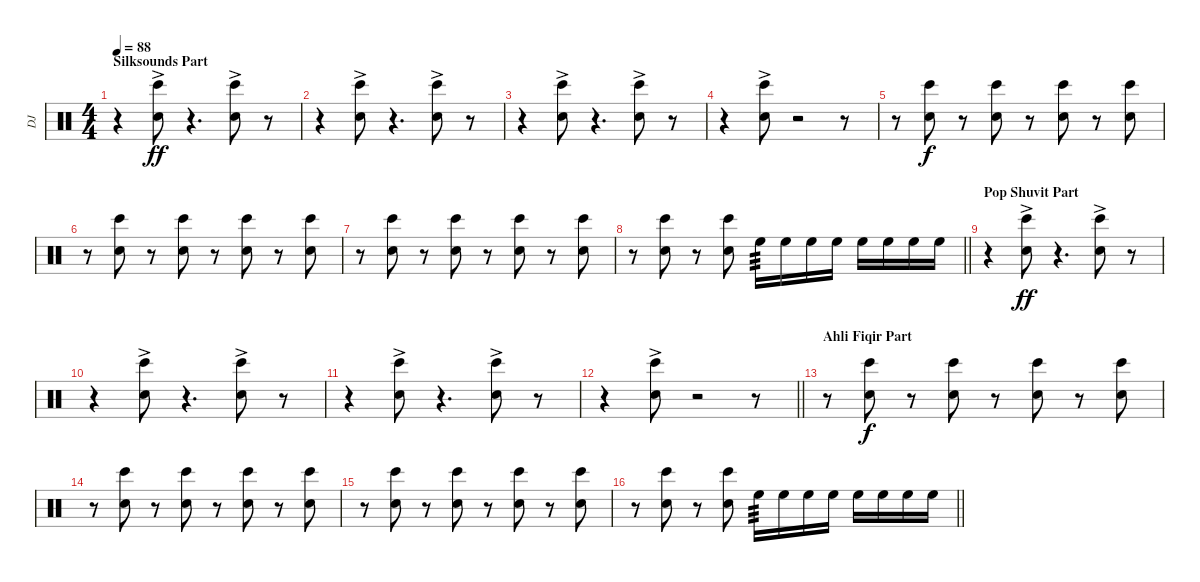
\track ("DJ" "DJ") {instrument percussion}
\staff {score}
\articulation defaults
\ts (4 4)
\section ("" "Silksounds Part")
\tempo 88
\clef neutral
\ks c
r.4{dy f} ("Bongo High (hit)"{ac} "Hand Clap (hit)"{ac}).8{dy ff} r.4{d} ("Bongo High (hit)"{ac} "Hand Clap (hit)"{ac}).8 r.8 |
r.4 ("Bongo High (hit)"{ac} "Hand Clap (hit)"{ac}).8 r.4{d} ("Bongo High (hit)"{ac} "Hand Clap (hit)"{ac}).8 r.8 |
r.4 ("Bongo High (hit)"{ac} "Hand Clap (hit)"{ac}).8 r.4{d} ("Bongo High (hit)"{ac} "Hand Clap (hit)"{ac}).8 r.8 |
r.4 ("Bongo High (hit)"{ac} "Hand Clap (hit)"{ac}).8 r.2 r.8 |
r.8 ("Bongo High (hit)" "Hand Clap (hit)").8{dy f} r.8 ("Bongo High (hit)" "Hand Clap (hit)").8 r.8 ("Bongo High (hit)" "Hand Clap (hit)").8 r.8 ("Bongo High (hit)" "Hand Clap (hit)").8 |
r.8 ("Bongo High (hit)" "Hand Clap (hit)").8 r.8 ("Bongo High (hit)" "Hand Clap (hit)").8 r.8 ("Bongo High (hit)" "Hand Clap (hit)").8 r.8 ("Bongo High (hit)" "Hand Clap (hit)").8 |
r.8 ("Bongo High (hit)" "Hand Clap (hit)").8 r.8 ("Bongo High (hit)" "Hand Clap (hit)").8 r.8 ("Bongo High (hit)" "Hand Clap (hit)").8 r.8 ("Bongo High (hit)" "Hand Clap (hit)").8 |
\barLineRight lightlight
r.8 ("Bongo High (hit)" "Hand Clap (hit)").8 r.8 ("Bongo High (hit)" "Hand Clap (hit)").8 "High Floor Tom (hit)".16{tp 3} "High Floor Tom (hit)".16 "High Floor Tom (hit)".16 "High Floor Tom (hit)".16 "High Floor Tom (hit)".16 "High Floor Tom (hit)".16 "High Floor Tom (hit)".16 "High Floor Tom (hit)".16 |
\section ("" "Pop Shuvit Part")
r.4 ("Bongo High (hit)"{ac} "Hand Clap (hit)"{ac}).8{dy ff} r.4{d} ("Bongo High (hit)"{ac} "Hand Clap (hit)"{ac}).8 r.8 |
r.4 ("Bongo High (hit)"{ac} "Hand Clap (hit)"{ac}).8 r.4{d} ("Bongo High (hit)"{ac} "Hand Clap (hit)"{ac}).8 r.8 |
r.4 ("Bongo High (hit)"{ac} "Hand Clap (hit)"{ac}).8 r.4{d} ("Bongo High (hit)"{ac} "Hand Clap (hit)"{ac}).8 r.8 |
\barLineRight lightlight
r.4 ("Bongo High (hit)"{ac} "Hand Clap (hit)"{ac}).8 r.2 r.8 |
\section ("" "Ahli Fiqir Part")
r.8 ("Bongo High (hit)" "Hand Clap (hit)").8{dy f} r.8 ("Bongo High (hit)" "Hand Clap (hit)").8 r.8 ("Bongo High (hit)" "Hand Clap (hit)").8 r.8 ("Bongo High (hit)" "Hand Clap (hit)").8 |
r.8 ("Bongo High (hit)" "Hand Clap (hit)").8 r.8 ("Bongo High (hit)" "Hand Clap (hit)").8 r.8 ("Bongo High (hit)" "Hand Clap (hit)").8 r.8 ("Bongo High (hit)" "Hand Clap (hit)").8 |
r.8 ("Bongo High (hit)" "Hand Clap (hit)").8 r.8 ("Bongo High (hit)" "Hand Clap (hit)").8 r.8 ("Bongo High (hit)" "Hand Clap (hit)").8 r.8 ("Bongo High (hit)" "Hand Clap (hit)").8 |
\barLineRight lightlight
r.8 ("Bongo High (hit)" "Hand Clap (hit)").8 r.8 ("Bongo High (hit)" "Hand Clap (hit)").8 "High Floor Tom (hit)".16{tp 3} "High Floor Tom (hit)".16 "High Floor Tom (hit)".16 "High Floor Tom (hit)".16 "High Floor Tom (hit)".16 "High Floor Tom (hit)".16 "High Floor Tom (hit)".16 "High Floor Tom (hit)".16
